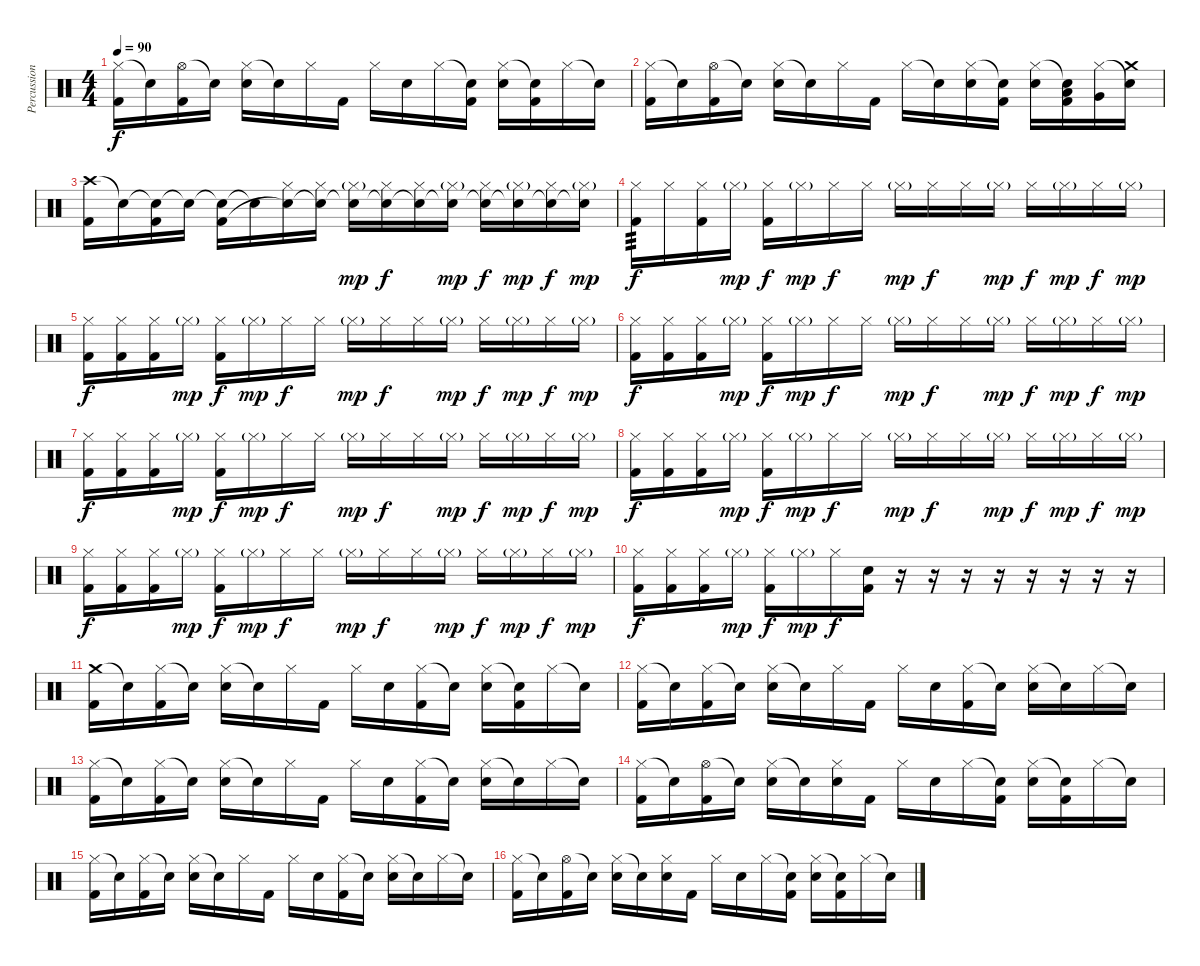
\track ("Percussion" "Percussion") {instrument percussion}
\staff {score}
\articulation defaults
\ts (4 4)
\tempo 90
\clef neutral
\ks c
("Hi-Hat (closed)" "Kick (hit) 2").16{dy f} "Snare (hit)"{t}.16 ("Hi-Hat (open)" "Kick (hit) 2").16 "Snare (hit)"{t}.16 ("Hi-Hat (closed)" "Snare (hit) 2").16 "Snare (hit)"{t}.16 "Hi-Hat (closed)".16 "Kick (hit) 2".16 "Hi-Hat (closed)".16 "Snare (hit) 2".16 "Hi-Hat (closed)".16 ("Snare (hit)"{t} "Kick (hit) 2").16 ("Hi-Hat (closed)" "Snare (hit) 2").16 ("Snare (hit)"{t} "Kick (hit) 2").16 "Hi-Hat (closed)".16 "Snare (hit)"{t}.16 |
("Hi-Hat (closed)" "Kick (hit) 2").16 "Snare (hit)"{t}.16 ("Hi-Hat (open)" "Kick (hit) 2").16 "Snare (hit)"{t}.16 ("Hi-Hat (closed)" "Snare (hit) 2").16 "Snare (hit)"{t}.16 "Hi-Hat (closed)".16 "Kick (hit) 2".16 "Hi-Hat (closed)".16 "Snare (hit)"{t}.16 ("Hi-Hat (closed)" "Snare (hit) 2").16 ("Snare (hit)"{t} "Kick (hit) 2").16 ("Hi-Hat (closed)" "Snare (hit) 2").16 ("Snare (hit)"{t} "Low Tom (hit)" "Kick (hit) 2").16 ("Hi-Hat (closed)" "Very Low Tom (hit)").16 ("Snare (hit)"{t} "Crash medium (hit)").16 |
("Crash high (hit)" "Kick (hit) 2").16 "Snare (hit)"{t}.16 ("Snare (hit)"{t} "Kick (hit) 2").16 "Snare (hit)"{t}.16 ("Snare (hit)"{t} "Kick (hit) 2").16 "Snare (hit)"{t}.16 ("Hi-Hat (closed)" "Snare (hit)"{t}).16 ("Hi-Hat (closed)" "Snare (hit)"{t}).16 ("Hi-Hat (closed)"{g} "Snare (hit)"{t}).16{dy mp} ("Hi-Hat (closed)" "Snare (hit)"{t}).16{dy f} ("Hi-Hat (closed)" "Snare (hit)"{t}).16 ("Hi-Hat (closed)"{g} "Snare (hit)"{t}).16{dy mp} ("Hi-Hat (closed)" "Snare (hit)"{t}).16{dy f} ("Hi-Hat (closed)"{g} "Snare (hit)"{t}).16{dy mp} ("Hi-Hat (closed)" "Snare (hit)"{t}).16{dy f} ("Hi-Hat (closed)"{g} "Snare (hit)"{t}).16{dy mp} |
("Hi-Hat (closed)" "Kick (hit) 2").16{tp 3 dy f} "Hi-Hat (closed)".16 ("Hi-Hat (closed)" "Kick (hit) 2").16 "Hi-Hat (closed)"{g}.16{dy mp} ("Hi-Hat (closed)" "Kick (hit) 2").16{dy f} "Hi-Hat (closed)"{g}.16{dy mp} "Hi-Hat (closed)".16{dy f} "Hi-Hat (closed)".16 "Hi-Hat (closed)"{g}.16{dy mp} "Hi-Hat (closed)".16{dy f} "Hi-Hat (closed)".16 "Hi-Hat (closed)"{g}.16{dy mp} "Hi-Hat (closed)".16{dy f} "Hi-Hat (closed)"{g}.16{dy mp} "Hi-Hat (closed)".16{dy f} "Hi-Hat (closed)"{g}.16{dy mp} |
("Hi-Hat (closed)" "Kick (hit) 2").16{dy f} ("Hi-Hat (closed)" "Kick (hit) 2").16 ("Hi-Hat (closed)" "Kick (hit) 2").16 "Hi-Hat (closed)"{g}.16{dy mp} ("Hi-Hat (closed)" "Kick (hit) 2").16{dy f} "Hi-Hat (closed)"{g}.16{dy mp} "Hi-Hat (closed)".16{dy f} "Hi-Hat (closed)".16 "Hi-Hat (closed)"{g}.16{dy mp} "Hi-Hat (closed)".16{dy f} "Hi-Hat (closed)".16 "Hi-Hat (closed)"{g}.16{dy mp} "Hi-Hat (closed)".16{dy f} "Hi-Hat (closed)"{g}.16{dy mp} "Hi-Hat (closed)".16{dy f} "Hi-Hat (closed)"{g}.16{dy mp} |
("Hi-Hat (closed)" "Kick (hit) 2").16{dy f} ("Hi-Hat (closed)" "Kick (hit) 2").16 ("Hi-Hat (closed)" "Kick (hit) 2").16 "Hi-Hat (closed)"{g}.16{dy mp} ("Hi-Hat (closed)" "Kick (hit) 2").16{dy f} "Hi-Hat (closed)"{g}.16{dy mp} "Hi-Hat (closed)".16{dy f} "Hi-Hat (closed)".16 "Hi-Hat (closed)"{g}.16{dy mp} "Hi-Hat (closed)".16{dy f} "Hi-Hat (closed)".16 "Hi-Hat (closed)"{g}.16{dy mp} "Hi-Hat (closed)".16{dy f} "Hi-Hat (closed)"{g}.16{dy mp} "Hi-Hat (closed)".16{dy f} "Hi-Hat (closed)"{g}.16{dy mp} |
("Hi-Hat (closed)" "Kick (hit) 2").16{dy f} ("Hi-Hat (closed)" "Kick (hit) 2").16 ("Hi-Hat (closed)" "Kick (hit) 2").16 "Hi-Hat (closed)"{g}.16{dy mp} ("Hi-Hat (closed)" "Kick (hit) 2").16{dy f} "Hi-Hat (closed)"{g}.16{dy mp} "Hi-Hat (closed)".16{dy f} "Hi-Hat (closed)".16 "Hi-Hat (closed)"{g}.16{dy mp} "Hi-Hat (closed)".16{dy f} "Hi-Hat (closed)".16 "Hi-Hat (closed)"{g}.16{dy mp} "Hi-Hat (closed)".16{dy f} "Hi-Hat (closed)"{g}.16{dy mp} "Hi-Hat (closed)".16{dy f} "Hi-Hat (closed)"{g}.16{dy mp} |
("Hi-Hat (closed)" "Kick (hit) 2").16{dy f} ("Hi-Hat (closed)" "Kick (hit) 2").16 ("Hi-Hat (closed)" "Kick (hit) 2").16 "Hi-Hat (closed)"{g}.16{dy mp} ("Hi-Hat (closed)" "Kick (hit) 2").16{dy f} "Hi-Hat (closed)"{g}.16{dy mp} "Hi-Hat (closed)".16{dy f} "Hi-Hat (closed)".16 "Hi-Hat (closed)"{g}.16{dy mp} "Hi-Hat (closed)".16{dy f} "Hi-Hat (closed)".16 "Hi-Hat (closed)"{g}.16{dy mp} "Hi-Hat (closed)".16{dy f} "Hi-Hat (closed)"{g}.16{dy mp} "Hi-Hat (closed)".16{dy f} "Hi-Hat (closed)"{g}.16{dy mp} |
("Hi-Hat (closed)" "Kick (hit) 2").16{dy f} ("Hi-Hat (closed)" "Kick (hit) 2").16 ("Hi-Hat (closed)" "Kick (hit) 2").16 "Hi-Hat (closed)"{g}.16{dy mp} ("Hi-Hat (closed)" "Kick (hit) 2").16{dy f} "Hi-Hat (closed)"{g}.16{dy mp} "Hi-Hat (closed)".16{dy f} "Hi-Hat (closed)".16 "Hi-Hat (closed)"{g}.16{dy mp} "Hi-Hat (closed)".16{dy f} "Hi-Hat (closed)".16 "Hi-Hat (closed)"{g}.16{dy mp} "Hi-Hat (closed)".16{dy f} "Hi-Hat (closed)"{g}.16{dy mp} "Hi-Hat (closed)".16{dy f} "Hi-Hat (closed)"{g}.16{dy mp} |
("Hi-Hat (closed)" "Kick (hit) 2").16{dy f} ("Hi-Hat (closed)" "Kick (hit) 2").16 ("Hi-Hat (closed)" "Kick (hit) 2").16 "Hi-Hat (closed)"{g}.16{dy mp} ("Hi-Hat (closed)" "Kick (hit) 2").16{dy f} "Hi-Hat (closed)"{g}.16{dy mp} "Hi-Hat (closed)".16{dy f} ("Snare (hit) 2" "Kick (hit) 2").16 r.16 r.16 r.16 r.16 r.16 r.16 r.16 r.16 |
("Crash medium (hit)" "Kick (hit) 2").16 "Snare (hit)"{t}.16 ("Hi-Hat (closed)" "Kick (hit) 2").16 "Snare (hit)"{t}.16 ("Hi-Hat (closed)" "Snare (hit) 2").16 "Snare (hit)"{t}.16 "Hi-Hat (closed)".16 "Kick (hit) 2".16 "Hi-Hat (closed)".16 "Snare (hit) 2".16 ("Hi-Hat (closed)" "Kick (hit) 2").16 "Snare (hit)"{t}.16 ("Hi-Hat (closed)" "Snare (hit) 2").16 ("Snare (hit)"{t} "Kick (hit) 2").16 "Hi-Hat (closed)".16 "Snare (hit)"{t}.16 |
("Hi-Hat (closed)" "Kick (hit) 2").16 "Snare (hit)"{t}.16 ("Hi-Hat (closed)" "Kick (hit) 2").16 "Snare (hit)"{t}.16 ("Hi-Hat (closed)" "Snare (hit) 2").16 "Snare (hit)"{t}.16 "Hi-Hat (closed)".16 "Kick (hit) 2".16 "Hi-Hat (closed)".16 "Snare (hit) 2".16 ("Hi-Hat (closed)" "Kick (hit) 2").16 "Snare (hit)"{t}.16 ("Hi-Hat (closed)" "Snare (hit) 2").16 "Snare (hit)"{t}.16 "Hi-Hat (closed)".16 "Snare (hit)"{t}.16 |
("Hi-Hat (closed)" "Kick (hit) 2").16 "Snare (hit)"{t}.16 ("Hi-Hat (closed)" "Kick (hit) 2").16 "Snare (hit)"{t}.16 ("Hi-Hat (closed)" "Snare (hit) 2").16 "Snare (hit)"{t}.16 "Hi-Hat (closed)".16 "Kick (hit) 2".16 "Hi-Hat (closed)".16 "Snare (hit) 2".16 ("Hi-Hat (closed)" "Kick (hit) 2").16 "Snare (hit)"{t}.16 ("Hi-Hat (closed)" "Snare (hit) 2").16 "Snare (hit)"{t}.16 "Hi-Hat (closed)".16 "Snare (hit)"{t}.16 |
("Hi-Hat (closed)" "Kick (hit) 2").16 "Snare (hit)"{t}.16 ("Hi-Hat (open)" "Kick (hit) 2").16 "Snare (hit)"{t}.16 ("Hi-Hat (closed)" "Snare (hit) 2").16 "Snare (hit)"{t}.16 ("Hi-Hat (closed)" "Snare (hit) 2").16 "Kick (hit) 2".16 "Hi-Hat (closed)".16 "Snare (hit) 2".16 "Hi-Hat (closed)".16 ("Snare (hit)"{t} "Kick (hit) 2").16 ("Hi-Hat (closed)" "Snare (hit) 2").16 ("Snare (hit)"{t} "Kick (hit) 2").16 "Hi-Hat (closed)".16 "Snare (hit)"{t}.16 |
("Hi-Hat (closed)" "Kick (hit) 2").16 "Snare (hit)"{t}.16 ("Hi-Hat (closed)" "Kick (hit) 2").16 "Snare (hit)"{t}.16 ("Hi-Hat (closed)" "Snare (hit) 2").16 "Snare (hit)"{t}.16 "Hi-Hat (closed)".16 "Kick (hit) 2".16 "Hi-Hat (closed)".16 "Snare (hit) 2".16 ("Hi-Hat (closed)" "Kick (hit) 2").16 "Snare (hit)"{t}.16 ("Hi-Hat (closed)" "Snare (hit) 2").16 "Snare (hit)"{t}.16 "Hi-Hat (closed)".16 "Snare (hit)"{t}.16 |
("Hi-Hat (closed)" "Kick (hit) 2").16 "Snare (hit)"{t}.16 ("Hi-Hat (open)" "Kick (hit) 2").16 "Snare (hit)"{t}.16 ("Hi-Hat (closed)" "Snare (hit) 2").16 "Snare (hit)"{t}.16 ("Hi-Hat (closed)" "Snare (hit) 2").16 "Kick (hit) 2".16 "Hi-Hat (closed)".16 "Snare (hit) 2".16 "Hi-Hat (closed)".16 ("Snare (hit)"{t} "Kick (hit) 2").16 ("Hi-Hat (closed)" "Snare (hit) 2").16 ("Snare (hit)"{t} "Kick (hit) 2").16 "Hi-Hat (closed)".16 "Snare (hit)"{t}.16
